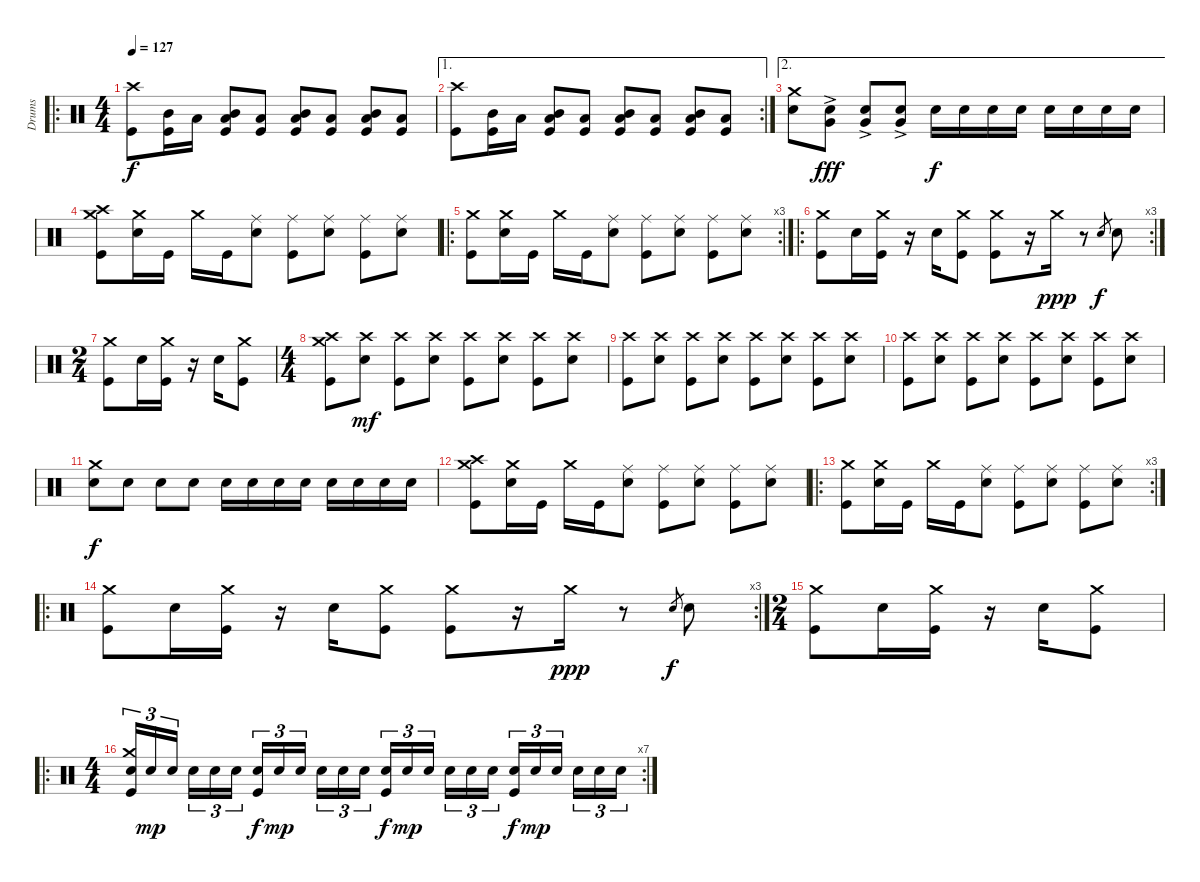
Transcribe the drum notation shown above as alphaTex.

\track ("Drums" "Drums") {instrument percussion}
\staff {score}
\articulation defaults
\ro
\ts (4 4)
\tempo 127
\clef neutral
\ks c
("Crash high (hit)" "Kick (hit)").8{dy f} ("Mid Tom (hit)" "Kick (hit)").16 "Low Tom (hit)".16 ("Mid Tom (hit)" "Low Tom (hit)" "Kick (hit)").8 ("Low Tom (hit)" "Kick (hit)").8 ("Mid Tom (hit)" "Low Tom (hit)" "Kick (hit)").8 ("Low Tom (hit)" "Kick (hit)").8 ("Mid Tom (hit)" "Low Tom (hit)" "Kick (hit)").8 ("Low Tom (hit)" "Kick (hit)").8 |
\ae 1
\rc 2
("Crash high (hit)" "Kick (hit)").8 ("Mid Tom (hit)" "Kick (hit)").16 "Low Tom (hit)".16 ("Mid Tom (hit)" "Low Tom (hit)" "Kick (hit)").8 ("Low Tom (hit)" "Kick (hit)").8 ("Mid Tom (hit)" "Low Tom (hit)" "Kick (hit)").8 ("Low Tom (hit)" "Kick (hit)").8 ("Mid Tom (hit)" "Low Tom (hit)" "Kick (hit)").8 ("Low Tom (hit)" "Kick (hit)").8 |
\ae 2
("Crash medium (hit)" "Electric Snare (hit)").8 ("Electric Snare (hit)" "Very Low Tom (hit)"{ac}).8{dy fff} ("Electric Snare (hit)" "Very Low Tom (hit)"{ac}).8 ("Electric Snare (hit)" "Very Low Tom (hit)"{ac}).8 "Electric Snare (hit)".16{dy f} "Electric Snare (hit)".16 "Electric Snare (hit)".16 "Electric Snare (hit)".16 "Electric Snare (hit)".16 "Electric Snare (hit)".16 "Electric Snare (hit)".16 "Electric Snare (hit)".16 |
("Crash high (hit)" "Crash medium (hit)" "Kick (hit)").8 ("Crash medium (hit)" "Electric Snare (hit)").16 "Kick (hit)".16 "Crash medium (hit)".16 "Kick (hit)".16 ("Ride (middle)" "Electric Snare (hit)").8 ("Ride (middle)" "Kick (hit)").8 ("Ride (middle)" "Electric Snare (hit)").8 ("Ride (middle)" "Kick (hit)").8 ("Ride (middle)" "Electric Snare (hit)").8 |
\ro
\rc 3
("Crash medium (hit)" "Kick (hit)").8 ("Crash medium (hit)" "Electric Snare (hit)").16 "Kick (hit)".16 "Crash medium (hit)".16 "Kick (hit)".16 ("Ride (middle)" "Electric Snare (hit)").8 ("Ride (middle)" "Kick (hit)").8 ("Ride (middle)" "Electric Snare (hit)").8 ("Ride (middle)" "Kick (hit)").8 ("Ride (middle)" "Electric Snare (hit)").8 |
\ro
\rc 3
("Crash medium (hit)" "Kick (hit)").8 "Electric Snare (hit)".16 ("Crash medium (hit)" "Kick (hit)").16 r.16 "Electric Snare (hit)".16 ("Crash medium (hit)" "Kick (hit)").8 ("Crash medium (hit)" "Kick (hit)").8 r.16 "Crash medium (hit)".16{dy ppp} r.8 "Electric Snare (hit)".8{gr dy f} "Electric Snare (hit)".8 |
\ts (2 4)
("Crash medium (hit)" "Kick (hit)").8 "Electric Snare (hit)".16 ("Crash medium (hit)" "Kick (hit)").16 r.16 "Electric Snare (hit)".16 ("Crash medium (hit)" "Kick (hit)").8 |
\ts (4 4)
("Crash high (hit)" "Crash medium (hit)" "Kick (hit)").8 ("Crash high (hit)" "Electric Snare (hit)").8{dy mf} ("Crash high (hit)" "Kick (hit)").8 ("Crash high (hit)" "Electric Snare (hit)").8 ("Crash high (hit)" "Kick (hit)").8 ("Crash high (hit)" "Electric Snare (hit)").8 ("Crash high (hit)" "Kick (hit)").8 ("Crash high (hit)" "Electric Snare (hit)").8 |
("Crash high (hit)" "Kick (hit)").8 ("Crash high (hit)" "Electric Snare (hit)").8 ("Crash high (hit)" "Kick (hit)").8 ("Crash high (hit)" "Electric Snare (hit)").8 ("Crash high (hit)" "Kick (hit)").8 ("Crash high (hit)" "Electric Snare (hit)").8 ("Crash high (hit)" "Kick (hit)").8 ("Crash high (hit)" "Electric Snare (hit)").8 |
("Crash high (hit)" "Kick (hit)").8 ("Crash high (hit)" "Electric Snare (hit)").8 ("Crash high (hit)" "Kick (hit)").8 ("Crash high (hit)" "Electric Snare (hit)").8 ("Crash high (hit)" "Kick (hit)").8 ("Crash high (hit)" "Electric Snare (hit)").8 ("Crash high (hit)" "Kick (hit)").8 ("Crash high (hit)" "Electric Snare (hit)").8 |
("Crash medium (hit)" "Electric Snare (hit)").8{dy f} "Electric Snare (hit)".8 "Electric Snare (hit)".8 "Electric Snare (hit)".8 "Electric Snare (hit)".16 "Electric Snare (hit)".16 "Electric Snare (hit)".16 "Electric Snare (hit)".16 "Electric Snare (hit)".16 "Electric Snare (hit)".16 "Electric Snare (hit)".16 "Electric Snare (hit)".16 |
("Crash high (hit)" "Crash medium (hit)" "Kick (hit)").8 ("Crash medium (hit)" "Electric Snare (hit)").16 "Kick (hit)".16 "Crash medium (hit)".16 "Kick (hit)".16 ("Ride (middle)" "Electric Snare (hit)").8 ("Ride (middle)" "Kick (hit)").8 ("Ride (middle)" "Electric Snare (hit)").8 ("Ride (middle)" "Kick (hit)").8 ("Ride (middle)" "Electric Snare (hit)").8 |
\ro
\rc 3
("Crash medium (hit)" "Kick (hit)").8 ("Crash medium (hit)" "Electric Snare (hit)").16 "Kick (hit)".16 "Crash medium (hit)".16 "Kick (hit)".16 ("Ride (middle)" "Electric Snare (hit)").8 ("Ride (middle)" "Kick (hit)").8 ("Ride (middle)" "Electric Snare (hit)").8 ("Ride (middle)" "Kick (hit)").8 ("Ride (middle)" "Electric Snare (hit)").8 |
\ro
\rc 3
("Crash medium (hit)" "Kick (hit)").8 "Electric Snare (hit)".16 ("Crash medium (hit)" "Kick (hit)").16 r.16 "Electric Snare (hit)".16 ("Crash medium (hit)" "Kick (hit)").8 ("Crash medium (hit)" "Kick (hit)").8 r.16 "Crash medium (hit)".16{dy ppp} r.8 "Electric Snare (hit)".8{gr dy f} "Electric Snare (hit)".8 |
\ts (2 4)
("Crash medium (hit)" "Kick (hit)").8 "Electric Snare (hit)".16 ("Crash medium (hit)" "Kick (hit)").16 r.16 "Electric Snare (hit)".16 ("Crash medium (hit)" "Kick (hit)").8 |
\ro
\rc 7
\ts (4 4)
("Crash medium (hit)" "Electric Snare (hit)" "Kick (hit)").16{tu (3 2)} "Electric Snare (hit)".16{tu (3 2) dy mp} "Electric Snare (hit)".16{tu (3 2)} "Electric Snare (hit)".16{tu (3 2)} "Electric Snare (hit)".16{tu (3 2)} "Electric Snare (hit)".16{tu (3 2)} ("Electric Snare (hit)" "Kick (hit)").16{tu (3 2) dy f} "Electric Snare (hit)".16{tu (3 2) dy mp} "Electric Snare (hit)".16{tu (3 2)} "Electric Snare (hit)".16{tu (3 2)} "Electric Snare (hit)".16{tu (3 2)} "Electric Snare (hit)".16{tu (3 2)} ("Electric Snare (hit)" "Kick (hit)").16{tu (3 2) dy f} "Electric Snare (hit)".16{tu (3 2) dy mp} "Electric Snare (hit)".16{tu (3 2)} "Electric Snare (hit)".16{tu (3 2)} "Electric Snare (hit)".16{tu (3 2)} "Electric Snare (hit)".16{tu (3 2)} ("Electric Snare (hit)" "Kick (hit)").16{tu (3 2) dy f} "Electric Snare (hit)".16{tu (3 2) dy mp} "Electric Snare (hit)".16{tu (3 2)} "Electric Snare (hit)".16{tu (3 2)} "Electric Snare (hit)".16{tu (3 2)} "Electric Snare (hit)".16{tu (3 2)}
